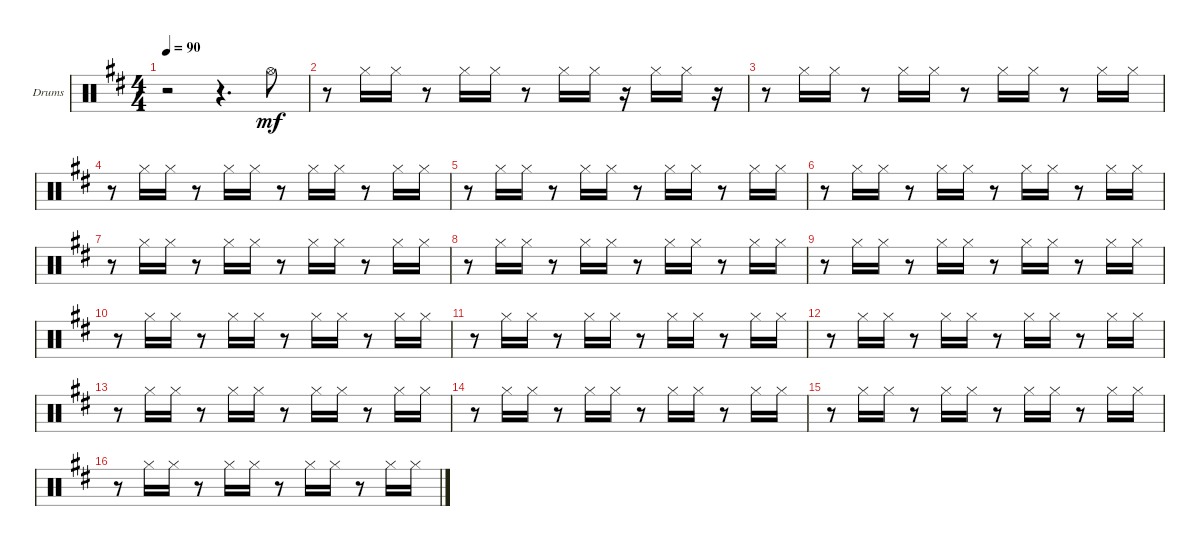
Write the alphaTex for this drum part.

\defaultSystemsLayout 4
\bracketExtendMode groupsimilarinstruments
\firstSystemTrackNameOrientation horizontal
\otherSystemsTrackNameOrientation horizontal
\track ("Drumkit" "Drums") {multiBarRest instrument percussion}
\staff {score}
\articulation defaults
\ts (4 4)
\tempo 90
\clef neutral
\scale
0.514894
\ks d
r.2{dy mf} r.4{d} "Hi-Hat (open)".8 |
\scale
0.242553 r.8 "Hi-Hat (closed)".16 "Hi-Hat (closed)".16 r.8 "Hi-Hat (closed)".16 "Hi-Hat (closed)".16 r.8 "Hi-Hat (closed)".16 "Hi-Hat (closed)".16 r.16 "Hi-Hat (closed)".16 "Hi-Hat (closed)".16 r.16 |
\scale
0.242553 r.8 "Hi-Hat (closed)".16 "Hi-Hat (closed)".16 r.8 "Hi-Hat (closed)".16 "Hi-Hat (closed)".16 r.8 "Hi-Hat (closed)".16 "Hi-Hat (closed)".16 r.8 "Hi-Hat (closed)".16 "Hi-Hat (closed)".16 |
\scale
0.333333 r.8 "Hi-Hat (closed)".16 "Hi-Hat (closed)".16 r.8 "Hi-Hat (closed)".16 "Hi-Hat (closed)".16 r.8 "Hi-Hat (closed)".16 "Hi-Hat (closed)".16 r.8 "Hi-Hat (closed)".16 "Hi-Hat (closed)".16 |
\scale
0.333333 r.8 "Hi-Hat (closed)".16 "Hi-Hat (closed)".16 r.8 "Hi-Hat (closed)".16 "Hi-Hat (closed)".16 r.8 "Hi-Hat (closed)".16 "Hi-Hat (closed)".16 r.8 "Hi-Hat (closed)".16 "Hi-Hat (closed)".16 |
\scale
0.333333 r.8 "Hi-Hat (closed)".16 "Hi-Hat (closed)".16 r.8 "Hi-Hat (closed)".16 "Hi-Hat (closed)".16 r.8 "Hi-Hat (closed)".16 "Hi-Hat (closed)".16 r.8 "Hi-Hat (closed)".16 "Hi-Hat (closed)".16 |
\scale
0.333333 r.8 "Hi-Hat (closed)".16 "Hi-Hat (closed)".16 r.8 "Hi-Hat (closed)".16 "Hi-Hat (closed)".16 r.8 "Hi-Hat (closed)".16 "Hi-Hat (closed)".16 r.8 "Hi-Hat (closed)".16 "Hi-Hat (closed)".16 |
\scale
0.333333 r.8 "Hi-Hat (closed)".16 "Hi-Hat (closed)".16 r.8 "Hi-Hat (closed)".16 "Hi-Hat (closed)".16 r.8 "Hi-Hat (closed)".16 "Hi-Hat (closed)".16 r.8 "Hi-Hat (closed)".16 "Hi-Hat (closed)".16 |
\scale
0.333333 r.8 "Hi-Hat (closed)".16 "Hi-Hat (closed)".16 r.8 "Hi-Hat (closed)".16 "Hi-Hat (closed)".16 r.8 "Hi-Hat (closed)".16 "Hi-Hat (closed)".16 r.8 "Hi-Hat (closed)".16 "Hi-Hat (closed)".16 |
\scale
0.333333 r.8 "Hi-Hat (closed)".16 "Hi-Hat (closed)".16 r.8 "Hi-Hat (closed)".16 "Hi-Hat (closed)".16 r.8 "Hi-Hat (closed)".16 "Hi-Hat (closed)".16 r.8 "Hi-Hat (closed)".16 "Hi-Hat (closed)".16 |
\scale
0.333333 r.8 "Hi-Hat (closed)".16 "Hi-Hat (closed)".16 r.8 "Hi-Hat (closed)".16 "Hi-Hat (closed)".16 r.8 "Hi-Hat (closed)".16 "Hi-Hat (closed)".16 r.8 "Hi-Hat (closed)".16 "Hi-Hat (closed)".16 |
\scale
0.333333 r.8 "Hi-Hat (closed)".16 "Hi-Hat (closed)".16 r.8 "Hi-Hat (closed)".16 "Hi-Hat (closed)".16 r.8 "Hi-Hat (closed)".16 "Hi-Hat (closed)".16 r.8 "Hi-Hat (closed)".16 "Hi-Hat (closed)".16 |
\scale
0.333333 r.8 "Hi-Hat (closed)".16 "Hi-Hat (closed)".16 r.8 "Hi-Hat (closed)".16 "Hi-Hat (closed)".16 r.8 "Hi-Hat (closed)".16 "Hi-Hat (closed)".16 r.8 "Hi-Hat (closed)".16 "Hi-Hat (closed)".16 |
\scale
0.333333 r.8 "Hi-Hat (closed)".16 "Hi-Hat (closed)".16 r.8 "Hi-Hat (closed)".16 "Hi-Hat (closed)".16 r.8 "Hi-Hat (closed)".16 "Hi-Hat (closed)".16 r.8 "Hi-Hat (closed)".16 "Hi-Hat (closed)".16 |
\scale
0.333333 r.8 "Hi-Hat (closed)".16 "Hi-Hat (closed)".16 r.8 "Hi-Hat (closed)".16 "Hi-Hat (closed)".16 r.8 "Hi-Hat (closed)".16 "Hi-Hat (closed)".16 r.8 "Hi-Hat (closed)".16 "Hi-Hat (closed)".16 |
\scale
0.333333 r.8 "Hi-Hat (closed)".16 "Hi-Hat (closed)".16 r.8 "Hi-Hat (closed)".16 "Hi-Hat (closed)".16 r.8 "Hi-Hat (closed)".16 "Hi-Hat (closed)".16 r.8 "Hi-Hat (closed)".16 "Hi-Hat (closed)".16
